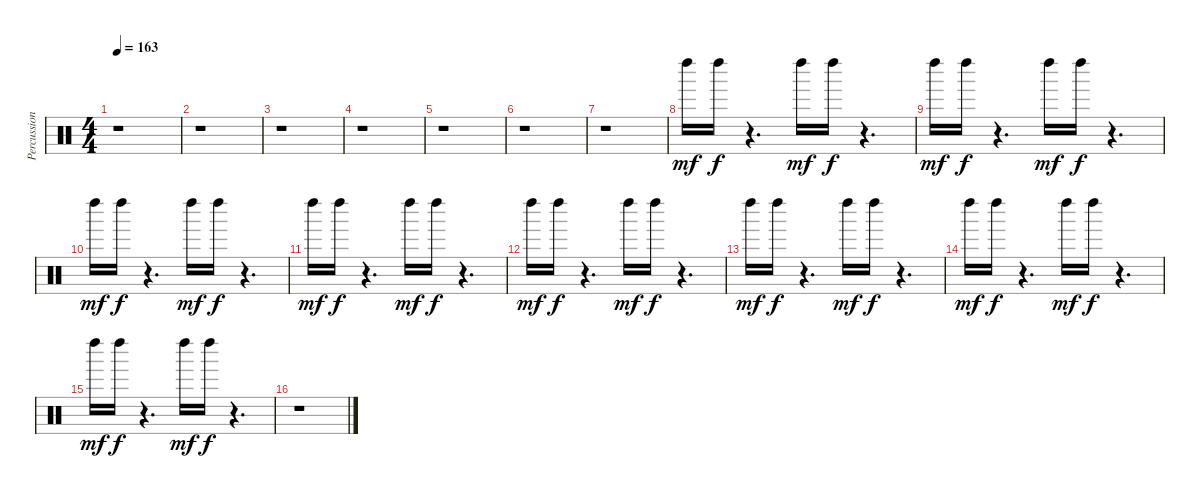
\track ("Percussion" "Percussion") {instrument percussion}
\staff {score}
\articulation defaults
\ts (4 4)
\tempo 163
\clef neutral
\ks c
r.1{dy f} |
r.1 |
r.1 |
r.1 |
r.1 |
r.1 |
r.1 |
"Left Maraca (hit)".16{dy mf} "Left Maraca (hit)".16{dy f} r.4{d} "Left Maraca (hit)".16{dy mf} "Left Maraca (hit)".16{dy f} r.4{d} |
"Left Maraca (hit)".16{dy mf} "Left Maraca (hit)".16{dy f} r.4{d} "Left Maraca (hit)".16{dy mf} "Left Maraca (hit)".16{dy f} r.4{d} |
"Left Maraca (hit)".16{dy mf} "Left Maraca (hit)".16{dy f} r.4{d} "Left Maraca (hit)".16{dy mf} "Left Maraca (hit)".16{dy f} r.4{d} |
"Left Maraca (hit)".16{dy mf} "Left Maraca (hit)".16{dy f} r.4{d} "Left Maraca (hit)".16{dy mf} "Left Maraca (hit)".16{dy f} r.4{d} |
"Left Maraca (hit)".16{dy mf} "Left Maraca (hit)".16{dy f} r.4{d} "Left Maraca (hit)".16{dy mf} "Left Maraca (hit)".16{dy f} r.4{d} |
"Left Maraca (hit)".16{dy mf} "Left Maraca (hit)".16{dy f} r.4{d} "Left Maraca (hit)".16{dy mf} "Left Maraca (hit)".16{dy f} r.4{d} |
"Left Maraca (hit)".16{dy mf} "Left Maraca (hit)".16{dy f} r.4{d} "Left Maraca (hit)".16{dy mf} "Left Maraca (hit)".16{dy f} r.4{d} |
"Left Maraca (hit)".16{dy mf} "Left Maraca (hit)".16{dy f} r.4{d} "Left Maraca (hit)".16{dy mf} "Left Maraca (hit)".16{dy f} r.4{d} |
r.1
